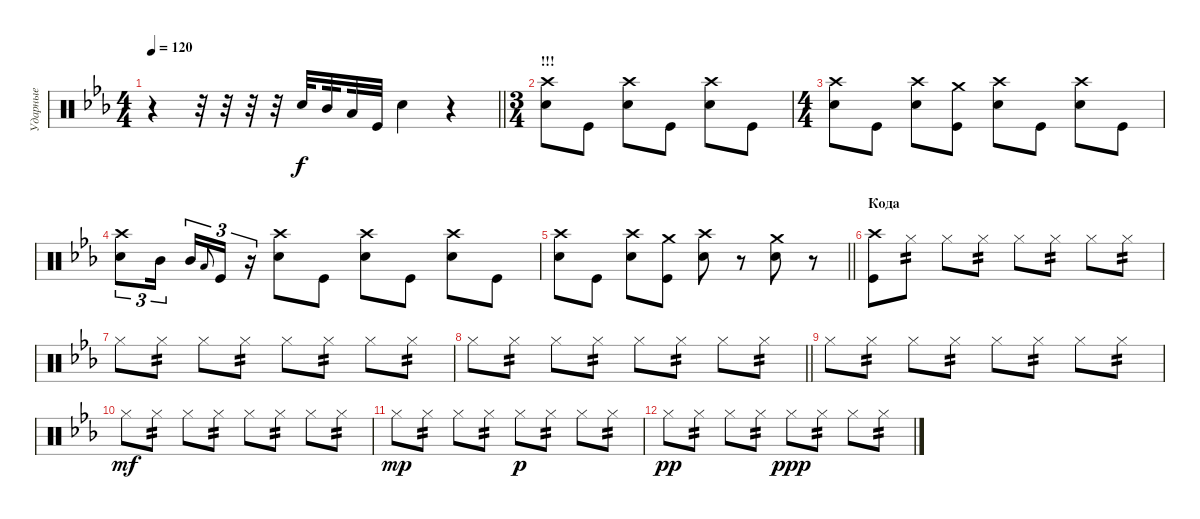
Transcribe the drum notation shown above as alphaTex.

\track ("Ударные" "Ударные") {instrument percussion}
\staff {score}
\articulation defaults
\ts (4 4)
\tempo 120
\clef neutral
\barLineRight lightlight
\ks cminor
r.4{dy f} r.32 r.32 r.32 r.32 "Snare (hit) 2".32{beam splitsecondary} "Mid Tom (hit)".32{beam splitsecondary} "Low Tom (hit)".32 "Kick (hit)".32 "Snare (hit) 2".4 r.4 |
\ts (3 4)
\section ("" "!!!")
("Crash high (hit)" "Snare (hit) 2").8 "Kick (hit)".8 ("Crash high (hit)" "Snare (hit) 2").8 "Kick (hit)".8 ("Crash high (hit)" "Snare (hit) 2").8 "Kick (hit)".8 |
\ts (4 4)
("Crash high (hit)" "Snare (hit) 2").8 "Kick (hit)".8 ("Crash high (hit)" "Snare (hit) 2").8 ("Crash medium (hit)" "Kick (hit)").8 ("Crash high (hit)" "Snare (hit) 2").8 "Kick (hit)".8 ("Crash high (hit)" "Snare (hit) 2").8 "Kick (hit)".8 |
("Crash high (hit)" "Snare (hit) 2").8{tu (3 2)} "Mid Tom (hit)".16{tu (3 2) beam splitsecondary} "Mid Tom (hit)".16{tu (3 2)} "Low Tom (hit)".8{gr onbeat} "Kick (hit)".16{tu (3 2)} r.16{tu (3 2)} ("Crash high (hit)" "Snare (hit) 2").8 "Kick (hit)".8 ("Crash high (hit)" "Snare (hit) 2").8 "Kick (hit)".8 ("Crash high (hit)" "Snare (hit) 2").8 "Kick (hit)".8 |
\barLineRight lightlight
("Crash high (hit)" "Snare (hit) 2").8 "Kick (hit)".8 ("Crash high (hit)" "Snare (hit) 2").8 ("Crash medium (hit)" "Kick (hit)").8 ("Crash high (hit)" "Snare (hit) 2").8 r.8 ("Crash medium (hit)" "Snare (hit) 2").8 r.8 |
\section ("" "Кода")
("Crash high (hit)" "Kick (hit)").8 "Hi-Hat (closed)".8{tp 2} "Hi-Hat (closed)".8 "Hi-Hat (closed)".8{tp 2} "Hi-Hat (closed)".8 "Hi-Hat (closed)".8{tp 2} "Hi-Hat (closed)".8 "Hi-Hat (closed)".8{tp 2} |
"Hi-Hat (closed)".8 "Hi-Hat (closed)".8{tp 2} "Hi-Hat (closed)".8 "Hi-Hat (closed)".8{tp 2} "Hi-Hat (closed)".8 "Hi-Hat (closed)".8{tp 2} "Hi-Hat (closed)".8 "Hi-Hat (closed)".8{tp 2} |
\barLineRight lightlight "Hi-Hat (closed)".8 "Hi-Hat (closed)".8{tp 2} "Hi-Hat (closed)".8 "Hi-Hat (closed)".8{tp 2} "Hi-Hat (closed)".8 "Hi-Hat (closed)".8{tp 2} "Hi-Hat (closed)".8 "Hi-Hat (closed)".8{tp 2}
|
"Hi-Hat (closed)".8 "Hi-Hat (closed)".8{tp 2} "Hi-Hat (closed)".8 "Hi-Hat (closed)".8{tp 2} "Hi-Hat (closed)".8 "Hi-Hat (closed)".8{tp 2} "Hi-Hat (closed)".8 "Hi-Hat (closed)".8{tp 2} |
"Hi-Hat (closed)".8{dy mf} "Hi-Hat (closed)".8{tp 2} "Hi-Hat (closed)".8 "Hi-Hat (closed)".8{tp 2} "Hi-Hat (closed)".8 "Hi-Hat (closed)".8{tp 2} "Hi-Hat (closed)".8 "Hi-Hat (closed)".8{tp 2} |
"Hi-Hat (closed)".8{dy mp} "Hi-Hat (closed)".8{tp 2} "Hi-Hat (closed)".8 "Hi-Hat (closed)".8{tp 2} "Hi-Hat (closed)".8{dy p} "Hi-Hat (closed)".8{tp 2} "Hi-Hat (closed)".8 "Hi-Hat (closed)".8{tp 2} |
"Hi-Hat (closed)".8{dy pp} "Hi-Hat (closed)".8{tp 2} "Hi-Hat (closed)".8 "Hi-Hat (closed)".8{tp 2} "Hi-Hat (closed)".8{dy ppp} "Hi-Hat (closed)".8{tp 2} "Hi-Hat (closed)".8 "Hi-Hat (closed)".8{tp 2}
